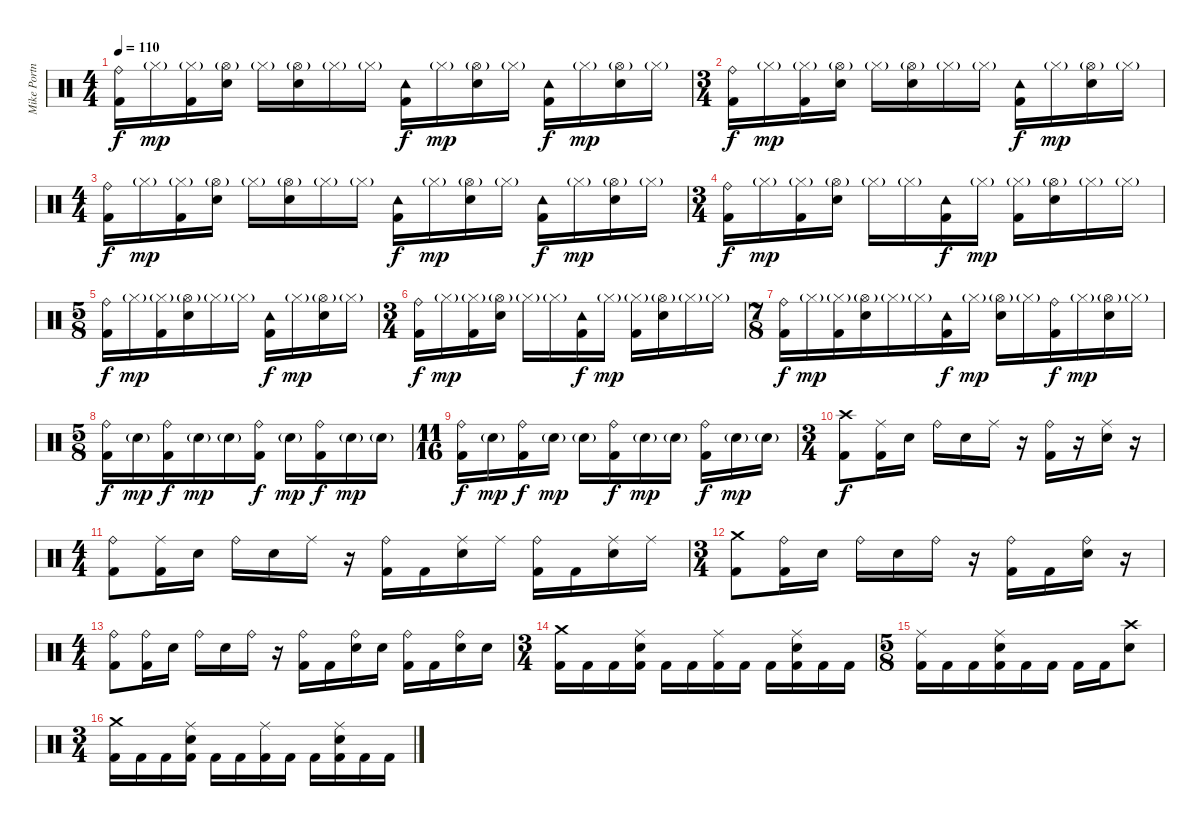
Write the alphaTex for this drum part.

\track ("Mike Portnoy" "Mike Portn") {instrument percussion}
\staff {score}
\articulation defaults
\ts (4 4)
\tempo 110
\clef neutral
\ks c
("Ride (bell)" "Kick (hit) 2").16{dy f} "Hi-Hat (closed)"{g}.16{dy mp} ("Hi-Hat (closed)"{g} "Kick (hit) 2").16 ("Hi-Hat (open)"{g} "Snare (hit) 2").16 "Hi-Hat (closed)"{g}.16 ("Hi-Hat (open)"{g} "Snare (hit) 2").16 "Hi-Hat (closed)"{g}.16 "Hi-Hat (closed)"{g}.16 ("Tambourine (hit)" "Kick (hit) 2").16{dy f} "Hi-Hat (closed)"{g}.16{dy mp} ("Hi-Hat (open)"{g} "Snare (hit) 2").16 "Hi-Hat (closed)"{g}.16 ("Tambourine (hit)" "Kick (hit) 2").16{dy f} "Hi-Hat (closed)"{g}.16{dy mp} ("Hi-Hat (open)"{g} "Snare (hit) 2").16 "Hi-Hat (closed)"{g}.16 |
\ts (3 4)
("Ride (bell)" "Kick (hit) 2").16{dy f} "Hi-Hat (closed)"{g}.16{dy mp} ("Hi-Hat (closed)"{g} "Kick (hit) 2").16 ("Hi-Hat (open)"{g} "Snare (hit) 2").16 "Hi-Hat (closed)"{g}.16 ("Hi-Hat (open)"{g} "Snare (hit) 2").16 "Hi-Hat (closed)"{g}.16 "Hi-Hat (closed)"{g}.16 ("Tambourine (hit)" "Kick (hit) 2").16{dy f} "Hi-Hat (closed)"{g}.16{dy mp} ("Hi-Hat (open)"{g} "Snare (hit) 2").16 "Hi-Hat (closed)"{g}.16 |
\ts (4 4)
("Ride (bell)" "Kick (hit) 2").16{dy f} "Hi-Hat (closed)"{g}.16{dy mp} ("Hi-Hat (closed)"{g} "Kick (hit) 2").16 ("Hi-Hat (open)"{g} "Snare (hit) 2").16 "Hi-Hat (closed)"{g}.16 ("Hi-Hat (open)"{g} "Snare (hit) 2").16 "Hi-Hat (closed)"{g}.16 "Hi-Hat (closed)"{g}.16 ("Tambourine (hit)" "Kick (hit) 2").16{dy f} "Hi-Hat (closed)"{g}.16{dy mp} ("Hi-Hat (open)"{g} "Snare (hit) 2").16 "Hi-Hat (closed)"{g}.16 ("Tambourine (hit)" "Kick (hit) 2").16{dy f} "Hi-Hat (closed)"{g}.16{dy mp} ("Hi-Hat (open)"{g} "Snare (hit) 2").16 "Hi-Hat (closed)"{g}.16 |
\ts (3 4)
("Ride (bell)" "Kick (hit) 2").16{dy f} "Hi-Hat (closed)"{g}.16{dy mp} ("Hi-Hat (closed)"{g} "Kick (hit) 2").16 ("Hi-Hat (open)"{g} "Snare (hit) 2").16 "Hi-Hat (closed)"{g}.16 "Hi-Hat (closed)"{g}.16 ("Tambourine (hit)" "Kick (hit) 2").16{dy f} "Hi-Hat (closed)"{g}.16{dy mp} ("Hi-Hat (closed)"{g} "Kick (hit) 2").16 ("Hi-Hat (open)"{g} "Snare (hit) 2").16 "Hi-Hat (closed)"{g}.16 "Hi-Hat (closed)"{g}.16 |
\ts (5 8)
("Ride (bell)" "Kick (hit) 2").16{dy f} "Hi-Hat (closed)"{g}.16{dy mp} ("Hi-Hat (closed)"{g} "Kick (hit) 2").16 ("Hi-Hat (open)"{g} "Snare (hit) 2").16 "Hi-Hat (closed)"{g}.16 "Hi-Hat (closed)"{g}.16 ("Tambourine (hit)" "Kick (hit) 2").16{dy f} "Hi-Hat (closed)"{g}.16{dy mp} ("Hi-Hat (open)"{g} "Snare (hit) 2").16 "Hi-Hat (closed)"{g}.16 |
\ts (3 4)
("Ride (bell)" "Kick (hit) 2").16{dy f} "Hi-Hat (closed)"{g}.16{dy mp} ("Hi-Hat (closed)"{g} "Kick (hit) 2").16 ("Hi-Hat (open)"{g} "Snare (hit) 2").16 "Hi-Hat (closed)"{g}.16 "Hi-Hat (closed)"{g}.16 ("Tambourine (hit)" "Kick (hit) 2").16{dy f} "Hi-Hat (closed)"{g}.16{dy mp} ("Hi-Hat (closed)"{g} "Kick (hit) 2").16 ("Hi-Hat (open)"{g} "Snare (hit) 2").16 "Hi-Hat (closed)"{g}.16 "Hi-Hat (closed)"{g}.16 |
\ts (7 8)
("Ride (bell)" "Kick (hit) 2").16{dy f} "Hi-Hat (closed)"{g}.16{dy mp} ("Hi-Hat (closed)"{g} "Kick (hit) 2").16 ("Hi-Hat (open)"{g} "Snare (hit) 2").16 "Hi-Hat (closed)"{g}.16 "Hi-Hat (closed)"{g}.16 ("Tambourine (hit)" "Kick (hit) 2").16{dy f} "Hi-Hat (closed)"{g}.16{dy mp} ("Hi-Hat (open)"{g} "Snare (hit) 2").16 "Hi-Hat (closed)"{g}.16 ("Ride (bell)" "Kick (hit) 2").16{dy f} "Hi-Hat (closed)"{g}.16{dy mp} ("Hi-Hat (open)"{g} "Snare (hit) 2").16 "Hi-Hat (closed)"{g}.16 |
\ts (5 8)
("Ride (bell)" "Kick (hit) 2").16{dy f} "Snare (hit) 2"{g}.16{dy mp} ("Ride (bell)" "Kick (hit) 2").16{dy f} "Snare (hit) 2"{g}.16{dy mp} "Snare (hit) 2"{g}.16 ("Ride (bell)" "Kick (hit) 2").16{dy f} "Snare (hit) 2"{g}.16{dy mp} ("Ride (bell)" "Kick (hit) 2").16{dy f} "Snare (hit) 2"{g}.16{dy mp} "Snare (hit) 2"{g}.16 |
\ts (11 16)
("Ride (bell)" "Kick (hit) 2").16{dy f} "Snare (hit) 2"{g}.16{dy mp} ("Ride (bell)" "Kick (hit) 2").16{dy f} "Snare (hit) 2"{g}.16{dy mp} "Snare (hit) 2"{g}.16 ("Ride (bell)" "Kick (hit) 2").16{dy f} "Snare (hit) 2"{g}.16{dy mp} "Snare (hit) 2"{g}.16 ("Ride (bell)" "Kick (hit) 2").16{dy f} "Snare (hit) 2"{g}.16{dy mp} "Snare (hit) 2"{g}.16 |
\ts (3 4)
("Crash high (hit)" "Kick (hit) 2").8{dy f} ("Ride (middle)" "Kick (hit) 2").16 "Snare (hit) 2".16 "Ride (bell)".16 "Snare (hit) 2".16 "Ride (middle)".16 r.16 ("Ride (bell)" "Kick (hit) 2").16 r.16 ("Ride (middle)" "Snare (hit) 2").16 r.16 |
\ts (4 4)
("Ride (bell)" "Kick (hit) 2").8 ("Ride (middle)" "Kick (hit) 2").16 "Snare (hit) 2".16 "Ride (bell)".16 "Snare (hit) 2".16 "Ride (middle)".16 r.16 ("Ride (bell)" "Kick (hit) 2").16 "Kick (hit) 2".16 ("Ride (middle)" "Snare (hit) 2").16 "Ride (middle)".16 ("Ride (bell)" "Kick (hit) 2").16 "Kick (hit) 2".16 ("Ride (middle)" "Snare (hit) 2").16 "Ride (middle)".16 |
\ts (3 4)
("Crash medium (hit)" "Kick (hit) 2").8 ("Ride (bell)" "Kick (hit) 2").16 "Snare (hit) 2".16 "Ride (bell)".16 "Snare (hit) 2".16 "Ride (bell)".16 r.16 ("Ride (bell)" "Kick (hit) 2").16 "Kick (hit) 2".16 ("Ride (bell)" "Snare (hit) 2").16 r.16 |
\ts (4 4)
("Ride (bell)" "Kick (hit) 2").8 ("Ride (bell)" "Kick (hit) 2").16 "Snare (hit) 2".16 "Ride (bell)".16 "Snare (hit) 2".16 "Ride (bell)".16 r.16 ("Ride (bell)" "Kick (hit) 2").16 "Kick (hit) 2".16 ("Ride (bell)" "Snare (hit) 2").16 "Snare (hit) 2".16 ("Ride (bell)" "Kick (hit) 2").16 "Kick (hit) 2".16 ("Ride (bell)" "Snare (hit) 2").16 "Snare (hit) 2".16 |
\ts (3 4)
("Crash medium (hit)" "Kick (hit) 2").16 "Kick (hit) 2".16 "Kick (hit) 2".16 ("Ride (middle)" "Snare (hit) 2" "Kick (hit) 2").16 "Kick (hit) 2".16 "Kick (hit) 2".16 ("Ride (middle)" "Kick (hit) 2").16 "Kick (hit) 2".16 "Kick (hit) 2".16 ("Ride (middle)" "Snare (hit) 2" "Kick (hit) 2").16 "Kick (hit) 2".16 "Kick (hit) 2".16 |
\ts (5 8)
("Ride (middle)" "Kick (hit) 2").16 "Kick (hit) 2".16 "Kick (hit) 2".16 ("Ride (middle)" "Snare (hit) 2" "Kick (hit) 2").16 "Kick (hit) 2".16 "Kick (hit) 2".16 "Kick (hit) 2".16 "Kick (hit) 2".16 ("Crash high (hit)" "Snare (hit) 2").8 |
\ts (3 4)
("Crash medium (hit)" "Kick (hit) 2").16 "Kick (hit) 2".16 "Kick (hit) 2".16 ("Ride (middle)" "Snare (hit) 2" "Kick (hit) 2").16 "Kick (hit) 2".16 "Kick (hit) 2".16 ("Ride (middle)" "Kick (hit) 2").16 "Kick (hit) 2".16 "Kick (hit) 2".16 ("Ride (middle)" "Snare (hit) 2" "Kick (hit) 2").16 "Kick (hit) 2".16 "Kick (hit) 2".16
